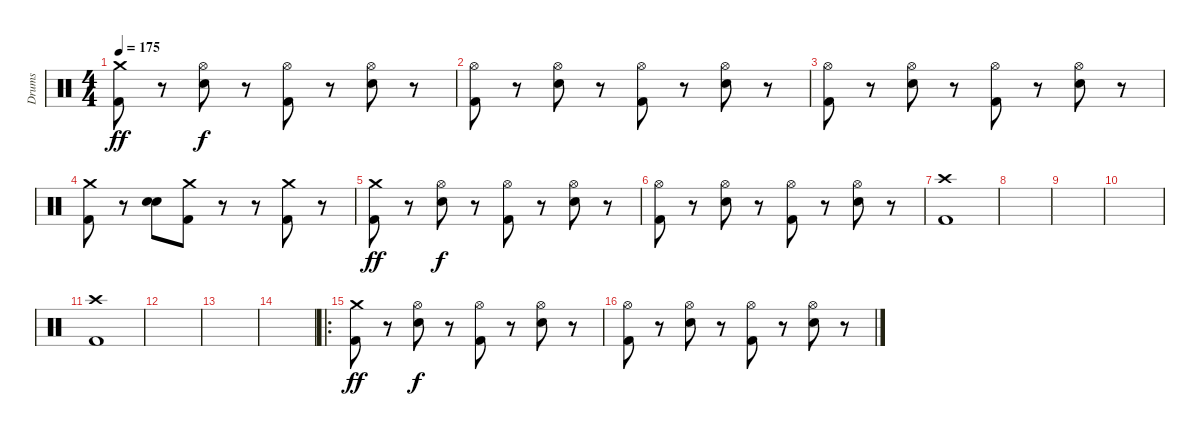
\track ("Drums" "Drums") {instrument percussion}
\staff {score}
\articulation defaults
\ts (4 4)
\tempo 175
\clef neutral
\ks c
("Crash medium (hit)" "Kick (hit) 2").8{dy ff} r.8 ("Hi-Hat (open)" "Electric Snare (hit)").8{dy f} r.8 ("Hi-Hat (open)" "Kick (hit) 2").8 r.8 ("Hi-Hat (open)" "Electric Snare (hit)").8 r.8 |
("Hi-Hat (open)" "Kick (hit) 2").8 r.8 ("Hi-Hat (open)" "Electric Snare (hit)").8 r.8 ("Hi-Hat (open)" "Kick (hit) 2").8 r.8 ("Hi-Hat (open)" "Electric Snare (hit)").8 r.8 |
("Hi-Hat (open)" "Kick (hit) 2").8 r.8 ("Hi-Hat (open)" "Electric Snare (hit)").8 r.8 ("Hi-Hat (open)" "Kick (hit) 2").8 r.8 ("Hi-Hat (open)" "Electric Snare (hit)").8 r.8 |
("Crash medium (hit)" "Kick (hit) 2").8 r.8 ("Electric Snare (hit)" "Electric Snare (hit)").8{bd 240} ("Crash medium (hit)" "Kick (hit) 2").8 r.8 r.8 ("Crash medium (hit)" "Kick (hit) 2").8 r.8 |
("Crash medium (hit)" "Kick (hit) 2").8{dy ff} r.8 ("Hi-Hat (open)" "Electric Snare (hit)").8{dy f} r.8 ("Hi-Hat (open)" "Kick (hit) 2").8 r.8 ("Hi-Hat (open)" "Electric Snare (hit)").8 r.8 |
("Hi-Hat (open)" "Kick (hit) 2").8 r.8 ("Hi-Hat (open)" "Electric Snare (hit)").8 r.8 ("Hi-Hat (open)" "Kick (hit) 2").8 r.8 ("Hi-Hat (open)" "Electric Snare (hit)").8 r.8 |
("Crash high (hit)" "Kick (hit) 2").1 |
|
|
|
("Crash high (hit)" "Kick (hit) 2").1 |
|
|
|
\ro
("Crash medium (hit)" "Kick (hit) 2").8{dy ff} r.8 ("Hi-Hat (open)" "Electric Snare (hit)").8{dy f} r.8 ("Hi-Hat (open)" "Kick (hit) 2").8 r.8 ("Hi-Hat (open)" "Electric Snare (hit)").8 r.8 |
("Hi-Hat (open)" "Kick (hit) 2").8 r.8 ("Hi-Hat (open)" "Electric Snare (hit)").8 r.8 ("Hi-Hat (open)" "Kick (hit) 2").8 r.8 ("Hi-Hat (open)" "Electric Snare (hit)").8 r.8
